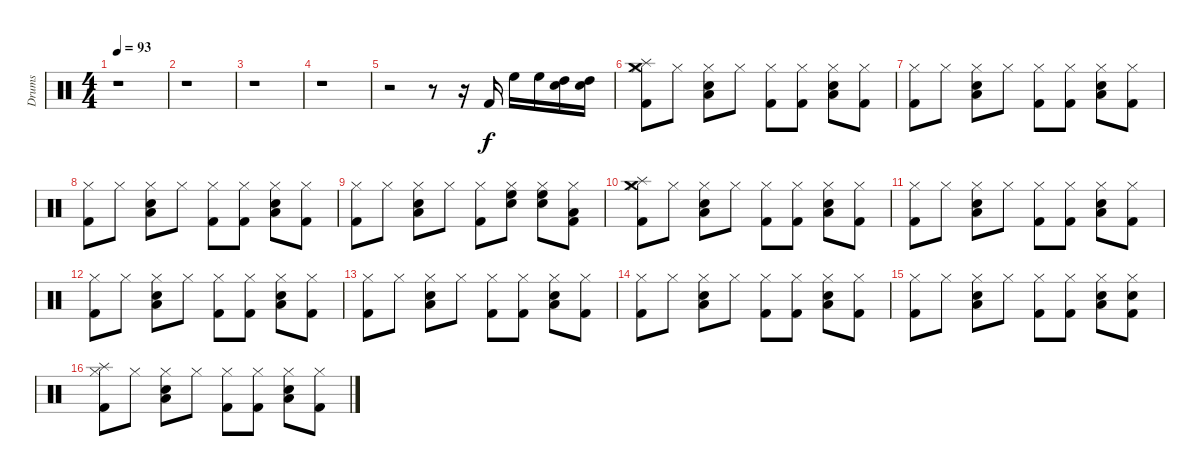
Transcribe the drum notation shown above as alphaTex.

\track ("Drums" "Drums") {instrument percussion}
\staff {score}
\articulation defaults
\ts (4 4)
\tempo 93
\clef neutral
\ks c
r.1{dy f} |
r.1 |
r.1 |
r.1 |
r.2 r.8 r.16 "Kick (hit) 2".16 "High Floor Tom (hit)".16 "High Floor Tom (hit)".16 ("High Tom (hit)" "Snare (hit) 2").16 ("High Tom (hit)" "Snare (hit) 2").16 |
("Hi-Hat (closed)" "Kick (hit) 2" "Splash (hit)" "Crash medium (hit)").8 "Hi-Hat (closed)".8 ("Hi-Hat (closed)" "Snare (hit) 2" "Low Tom (hit)").8 "Hi-Hat (closed)".8 ("Hi-Hat (closed)" "Kick (hit) 2").8 ("Hi-Hat (closed)" "Kick (hit) 2").8 ("Hi-Hat (closed)" "Snare (hit) 2" "Low Tom (hit)").8 ("Hi-Hat (closed)" "Kick (hit) 2").8 |
("Hi-Hat (closed)" "Kick (hit) 2").8 "Hi-Hat (closed)".8 ("Hi-Hat (closed)" "Snare (hit) 2" "Low Tom (hit)").8 "Hi-Hat (closed)".8 ("Hi-Hat (closed)" "Kick (hit) 2").8 ("Hi-Hat (closed)" "Kick (hit) 2").8 ("Hi-Hat (closed)" "Snare (hit) 2" "Low Tom (hit)").8 ("Hi-Hat (closed)" "Kick (hit) 2").8 |
("Hi-Hat (closed)" "Kick (hit) 2").8 "Hi-Hat (closed)".8 ("Hi-Hat (closed)" "Snare (hit) 2" "Low Tom (hit)").8 "Hi-Hat (closed)".8 ("Hi-Hat (closed)" "Kick (hit) 2").8 ("Hi-Hat (closed)" "Kick (hit) 2").8 ("Hi-Hat (closed)" "Snare (hit) 2" "Low Tom (hit)").8 ("Hi-Hat (closed)" "Kick (hit) 2").8 |
("Hi-Hat (closed)" "Kick (hit) 2").8 "Hi-Hat (closed)".8 ("Hi-Hat (closed)" "Snare (hit) 2" "Low Tom (hit)").8 "Hi-Hat (closed)".8 ("Hi-Hat (closed)" "Kick (hit) 2").8 ("Hi-Hat (closed)" "Snare (hit) 2" "High Floor Tom (hit)").8 ("Hi-Hat (closed)" "Snare (hit) 2" "High Floor Tom (hit)").8 ("Hi-Hat (closed)" "Kick (hit) 2" "Low Tom (hit)").8 |
("Hi-Hat (closed)" "Kick (hit) 2" "Splash (hit)" "Crash medium (hit)").8 "Hi-Hat (closed)".8 ("Hi-Hat (closed)" "Snare (hit) 2" "Low Tom (hit)").8 "Hi-Hat (closed)".8 ("Hi-Hat (closed)" "Kick (hit) 2").8 ("Hi-Hat (closed)" "Kick (hit) 2").8 ("Hi-Hat (closed)" "Snare (hit) 2" "Low Tom (hit)").8 ("Hi-Hat (closed)" "Kick (hit) 2").8 |
("Hi-Hat (closed)" "Kick (hit) 2").8 "Hi-Hat (closed)".8 ("Hi-Hat (closed)" "Snare (hit) 2" "Low Tom (hit)").8 "Hi-Hat (closed)".8 ("Hi-Hat (closed)" "Kick (hit) 2").8 ("Hi-Hat (closed)" "Kick (hit) 2").8 ("Hi-Hat (closed)" "Snare (hit) 2" "Low Tom (hit)").8 ("Hi-Hat (closed)" "Kick (hit) 2").8 |
("Hi-Hat (closed)" "Kick (hit) 2").8 "Hi-Hat (closed)".8 ("Hi-Hat (closed)" "Snare (hit) 2" "Low Tom (hit)").8 "Hi-Hat (closed)".8 ("Hi-Hat (closed)" "Kick (hit) 2").8 ("Hi-Hat (closed)" "Kick (hit) 2").8 ("Hi-Hat (closed)" "Snare (hit) 2" "Low Tom (hit)").8 ("Hi-Hat (closed)" "Kick (hit) 2").8 |
("Hi-Hat (closed)" "Kick (hit) 2").8 "Hi-Hat (closed)".8 ("Hi-Hat (closed)" "Snare (hit) 2" "Low Tom (hit)").8 "Hi-Hat (closed)".8 ("Hi-Hat (closed)" "Kick (hit) 2").8 ("Hi-Hat (closed)" "Kick (hit) 2").8 ("Hi-Hat (closed)" "Snare (hit) 2" "Low Tom (hit)").8 ("Hi-Hat (closed)" "Kick (hit) 2").8 |
("Hi-Hat (closed)" "Kick (hit) 2").8 "Hi-Hat (closed)".8 ("Hi-Hat (closed)" "Snare (hit) 2" "Low Tom (hit)").8 "Hi-Hat (closed)".8 ("Hi-Hat (closed)" "Kick (hit) 2").8 ("Hi-Hat (closed)" "Kick (hit) 2").8 ("Hi-Hat (closed)" "Snare (hit) 2" "Low Tom (hit)").8 ("Hi-Hat (closed)" "Kick (hit) 2").8 |
("Hi-Hat (closed)" "Kick (hit) 2").8 "Hi-Hat (closed)".8 ("Hi-Hat (closed)" "Snare (hit) 2" "Low Tom (hit)").8 "Hi-Hat (closed)".8 ("Hi-Hat (closed)" "Kick (hit) 2").8 ("Hi-Hat (closed)" "Kick (hit) 2").8 ("Hi-Hat (closed)" "Snare (hit) 2" "Low Tom (hit)").8 ("Hi-Hat (closed)" "Kick (hit) 2" "Snare (hit) 2").8 |
("Hi-Hat (closed)" "Kick (hit) 2" "Splash (hit)").8 "Hi-Hat (closed)".8 ("Hi-Hat (closed)" "Snare (hit) 2" "Low Tom (hit)").8 "Hi-Hat (closed)".8 ("Hi-Hat (closed)" "Kick (hit) 2").8 ("Hi-Hat (closed)" "Kick (hit) 2").8 ("Hi-Hat (closed)" "Snare (hit) 2" "Low Tom (hit)").8 ("Hi-Hat (closed)" "Kick (hit) 2").8
